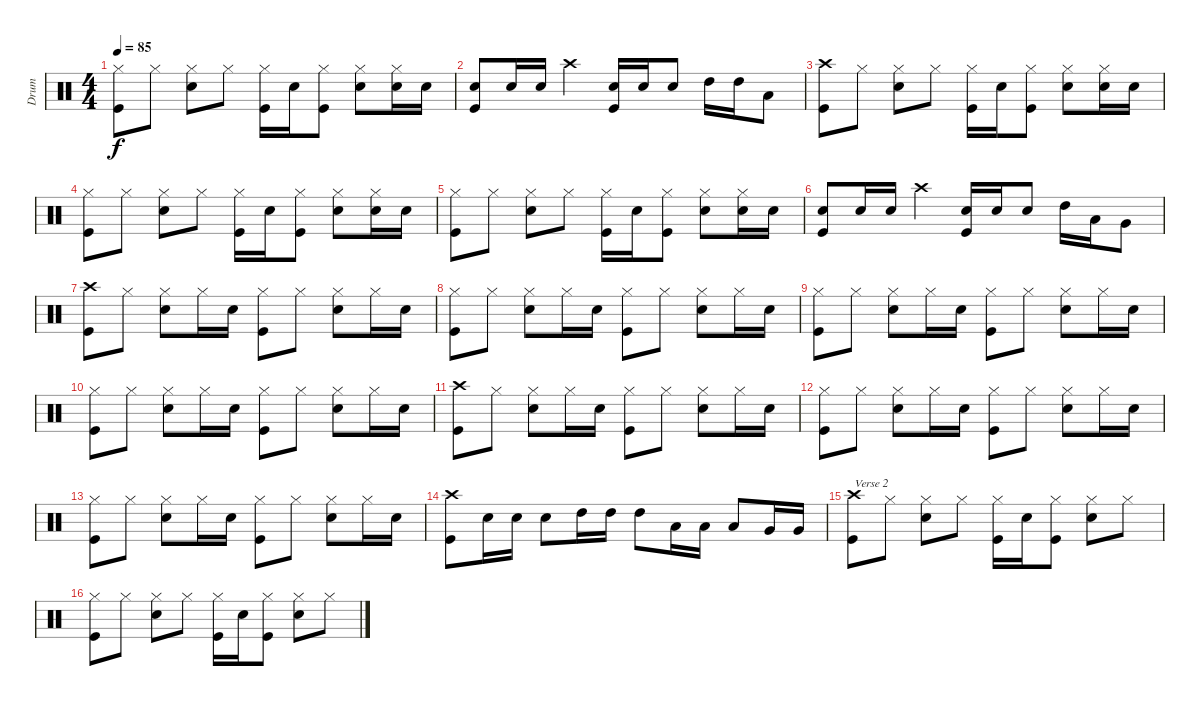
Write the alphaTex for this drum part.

\track ("Drum" "Drum") {instrument percussion}
\staff {score}
\articulation defaults
\ts (4 4)
\tempo 85
\clef neutral
\ks c
("Hi-Hat (closed)" "Kick (hit)").8{dy f} "Hi-Hat (closed)".8 ("Hi-Hat (closed)" "Snare (hit) 2").8 "Hi-Hat (closed)".8 ("Hi-Hat (closed)" "Kick (hit)").16 "Snare (hit) 2".16 ("Hi-Hat (closed)" "Kick (hit)").8 ("Hi-Hat (closed)" "Snare (hit) 2").8 ("Hi-Hat (closed)" "Snare (hit) 2").16 "Snare (hit) 2".16 |
("Snare (hit) 2" "Kick (hit)").8 "Snare (hit) 2".16 "Snare (hit) 2".16 "Crash high (hit)".4 ("Snare (hit) 2" "Kick (hit)").16 "Snare (hit) 2".16 "Snare (hit) 2".8 "High Tom (hit)".16 "High Tom (hit)".16 "Low Tom (hit)".8 |
("Crash high (hit)" "Kick (hit)").8 "Hi-Hat (closed)".8 ("Hi-Hat (closed)" "Snare (hit) 2").8 "Hi-Hat (closed)".8 ("Hi-Hat (closed)" "Kick (hit)").16 "Snare (hit) 2".16 ("Hi-Hat (closed)" "Kick (hit)").8 ("Hi-Hat (closed)" "Snare (hit) 2").8 ("Hi-Hat (closed)" "Snare (hit) 2").16 "Snare (hit) 2".16 |
("Hi-Hat (closed)" "Kick (hit)").8 "Hi-Hat (closed)".8 ("Hi-Hat (closed)" "Snare (hit) 2").8 "Hi-Hat (closed)".8 ("Hi-Hat (closed)" "Kick (hit)").16 "Snare (hit) 2".16 ("Hi-Hat (closed)" "Kick (hit)").8 ("Hi-Hat (closed)" "Snare (hit) 2").8 ("Hi-Hat (closed)" "Snare (hit) 2").16 "Snare (hit) 2".16 |
("Hi-Hat (closed)" "Kick (hit)").8 "Hi-Hat (closed)".8 ("Hi-Hat (closed)" "Snare (hit) 2").8 "Hi-Hat (closed)".8 ("Hi-Hat (closed)" "Kick (hit)").16 "Snare (hit) 2".16 ("Hi-Hat (closed)" "Kick (hit)").8 ("Hi-Hat (closed)" "Snare (hit) 2").8 ("Hi-Hat (closed)" "Snare (hit) 2").16 "Snare (hit) 2".16 |
("Snare (hit) 2" "Kick (hit)").8 "Snare (hit) 2".16 "Snare (hit) 2".16 "Crash high (hit)".4 ("Snare (hit) 2" "Kick (hit)").16 "Snare (hit) 2".16 "Snare (hit) 2".8 "High Tom (hit)".16 "Low Tom (hit)".16 "Very Low Tom (hit)".8 |
("Crash high (hit)" "Kick (hit)").8 "Hi-Hat (closed)".8 ("Hi-Hat (closed)" "Snare (hit) 2").8 "Hi-Hat (closed)".16 "Snare (hit) 2".16 ("Hi-Hat (closed)" "Kick (hit)").8 "Hi-Hat (closed)".8 ("Hi-Hat (closed)" "Snare (hit) 2").8 "Hi-Hat (closed)".16 "Snare (hit) 2".16 |
("Hi-Hat (closed)" "Kick (hit)").8 "Hi-Hat (closed)".8 ("Hi-Hat (closed)" "Snare (hit) 2").8 "Hi-Hat (closed)".16 "Snare (hit) 2".16 ("Hi-Hat (closed)" "Kick (hit)").8 "Hi-Hat (closed)".8 ("Hi-Hat (closed)" "Snare (hit) 2").8 "Hi-Hat (closed)".16 "Snare (hit) 2".16 |
("Hi-Hat (closed)" "Kick (hit)").8 "Hi-Hat (closed)".8 ("Hi-Hat (closed)" "Snare (hit) 2").8 "Hi-Hat (closed)".16 "Snare (hit) 2".16 ("Hi-Hat (closed)" "Kick (hit)").8 "Hi-Hat (closed)".8 ("Hi-Hat (closed)" "Snare (hit) 2").8 "Hi-Hat (closed)".16 "Snare (hit) 2".16 |
("Hi-Hat (closed)" "Kick (hit)").8 "Hi-Hat (closed)".8 ("Hi-Hat (closed)" "Snare (hit) 2").8 "Hi-Hat (closed)".16 "Snare (hit) 2".16 ("Hi-Hat (closed)" "Kick (hit)").8 "Hi-Hat (closed)".8 ("Hi-Hat (closed)" "Snare (hit) 2").8 "Hi-Hat (closed)".16 "Snare (hit) 2".16 |
("Crash high (hit)" "Kick (hit)").8 "Hi-Hat (closed)".8 ("Hi-Hat (closed)" "Snare (hit) 2").8 "Hi-Hat (closed)".16 "Snare (hit) 2".16 ("Hi-Hat (closed)" "Kick (hit)").8 "Hi-Hat (closed)".8 ("Hi-Hat (closed)" "Snare (hit) 2").8 "Hi-Hat (closed)".16 "Snare (hit) 2".16 |
("Hi-Hat (closed)" "Kick (hit)").8 "Hi-Hat (closed)".8 ("Hi-Hat (closed)" "Snare (hit) 2").8 "Hi-Hat (closed)".16 "Snare (hit) 2".16 ("Hi-Hat (closed)" "Kick (hit)").8 "Hi-Hat (closed)".8 ("Hi-Hat (closed)" "Snare (hit) 2").8 "Hi-Hat (closed)".16 "Snare (hit) 2".16 |
("Hi-Hat (closed)" "Kick (hit)").8 "Hi-Hat (closed)".8 ("Hi-Hat (closed)" "Snare (hit) 2").8 "Hi-Hat (closed)".16 "Snare (hit) 2".16 ("Hi-Hat (closed)" "Kick (hit)").8 "Hi-Hat (closed)".8 ("Hi-Hat (closed)" "Snare (hit) 2").8 "Hi-Hat (closed)".16 "Snare (hit) 2".16 |
("Crash high (hit)" "Kick (hit)").8 "Snare (hit) 2".16 "Snare (hit) 2".16 "Snare (hit) 2".8 "High Tom (hit)".16 "High Tom (hit)".16 "High Tom (hit)".8 "Low Tom (hit)".16 "Low Tom (hit)".16 "Low Tom (hit)".8 "Very Low Tom (hit)".16 "Very Low Tom (hit)".16 |
("Crash high (hit)" "Kick (hit)").8{txt "Verse 2"} "Hi-Hat (closed)".8 ("Hi-Hat (closed)" "Snare (hit) 2").8 "Hi-Hat (closed)".8 ("Hi-Hat (closed)" "Kick (hit)").16 "Snare (hit) 2".16 ("Hi-Hat (closed)" "Kick (hit)").8 ("Hi-Hat (closed)" "Snare (hit) 2").8 "Hi-Hat (closed)".8 |
("Hi-Hat (closed)" "Kick (hit)").8 "Hi-Hat (closed)".8 ("Hi-Hat (closed)" "Snare (hit) 2").8 "Hi-Hat (closed)".8 ("Hi-Hat (closed)" "Kick (hit)").16 "Snare (hit) 2".16 ("Hi-Hat (closed)" "Kick (hit)").8 ("Hi-Hat (closed)" "Snare (hit) 2").8 "Hi-Hat (closed)".8
